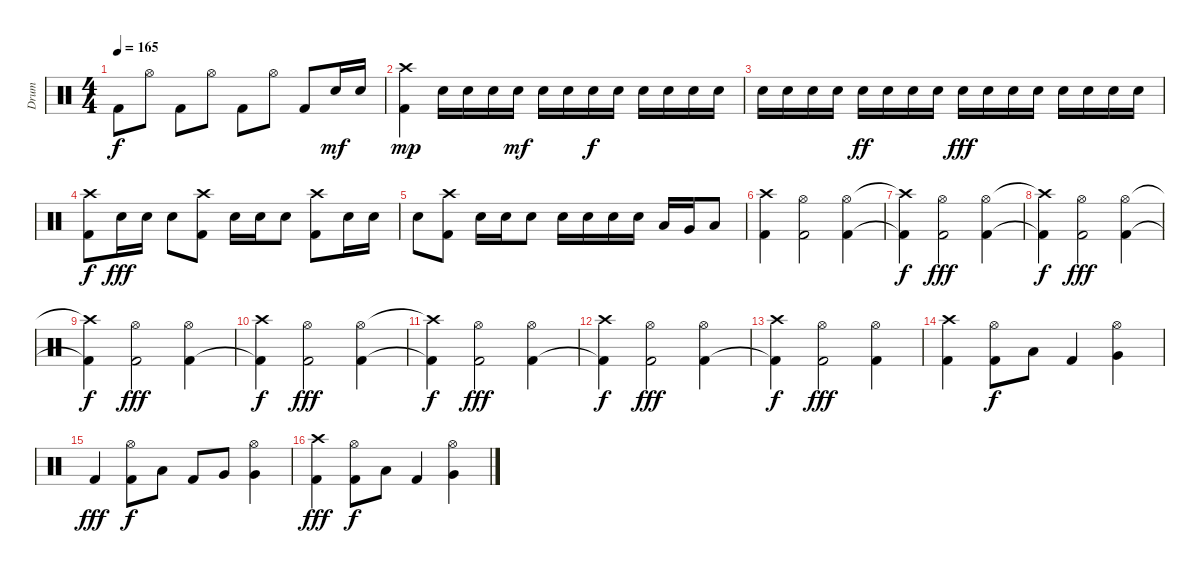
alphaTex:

\track ("Drum" "Drum") {instrument percussion}
\staff {score}
\articulation defaults
\ts (4 4)
\tempo 165
\clef neutral
\ks c "Kick (hit) 2".8{dy f} "Hi-Hat (open)".8 "Kick (hit) 2".8 "Hi-Hat (open)".8 "Kick (hit) 2".8 "Hi-Hat (open)".8 "Kick (hit) 2".8 "Electric Snare (hit)".16{dy mf} "Electric Snare (hit)".16
|
("Crash high (hit)" "Kick (hit) 2").4{dy mp} "Electric Snare (hit)".16 "Electric Snare (hit)".16 "Electric Snare (hit)".16 "Electric Snare (hit)".16{dy mf} "Electric Snare (hit)".16 "Electric Snare (hit)".16 "Electric Snare (hit)".16{dy f} "Electric Snare (hit)".16 "Electric Snare (hit)".16 "Electric Snare (hit)".16 "Electric Snare (hit)".16 "Electric Snare (hit)".16 |
"Electric Snare (hit)".16 "Electric Snare (hit)".16 "Electric Snare (hit)".16 "Electric Snare (hit)".16 "Electric Snare (hit)".16{dy ff} "Electric Snare (hit)".16 "Electric Snare (hit)".16 "Electric Snare (hit)".16 "Electric Snare (hit)".16{dy fff} "Electric Snare (hit)".16 "Electric Snare (hit)".16 "Electric Snare (hit)".16 "Electric Snare (hit)".16 "Electric Snare (hit)".16 "Electric Snare (hit)".16 "Electric Snare (hit)".16 |
("Crash high (hit)" "Kick (hit) 2").8{dy f} "Electric Snare (hit)".16{dy fff} "Electric Snare (hit)".16 "Electric Snare (hit)".8 ("Crash high (hit)" "Kick (hit) 2").8 "Electric Snare (hit)".16 "Electric Snare (hit)".16 "Electric Snare (hit)".8 ("Crash high (hit)" "Kick (hit) 2").8 "Electric Snare (hit)".16 "Electric Snare (hit)".16 |
"Electric Snare (hit)".8 ("Crash high (hit)" "Kick (hit) 2").8 "Electric Snare (hit)".16 "Electric Snare (hit)".16 "Electric Snare (hit)".8 "Electric Snare (hit)".16 "Electric Snare (hit)".16 "Electric Snare (hit)".16 "Electric Snare (hit)".16 "Low Tom (hit)".16 "Very Low Tom (hit)".16 "Low Floor Tom (hit)".8 |
("Crash high (hit)" "Kick (hit) 2").4 ("Hi-Hat (open)" "Kick (hit) 2").2 ("Hi-Hat (open)" "Kick (hit) 2").4 |
("Crash high (hit)"{t} "Kick (hit) 2"{t}).4{dy f} ("Hi-Hat (open)" "Kick (hit) 2").2{dy fff} ("Hi-Hat (open)" "Kick (hit) 2").4 |
("Crash high (hit)"{t} "Kick (hit) 2"{t}).4{dy f} ("Hi-Hat (open)" "Kick (hit) 2").2{dy fff} ("Hi-Hat (open)" "Kick (hit) 2").4 |
("Crash high (hit)"{t} "Kick (hit) 2"{t}).4{dy f} ("Hi-Hat (open)" "Kick (hit) 2").2{dy fff} ("Hi-Hat (open)" "Kick (hit) 2").4 |
("Crash high (hit)" "Kick (hit) 2"{t}).4{dy f} ("Hi-Hat (open)" "Kick (hit) 2").2{dy fff} ("Hi-Hat (open)" "Kick (hit) 2").4 |
("Crash high (hit)"{t} "Kick (hit) 2"{t}).4{dy f} ("Hi-Hat (open)" "Kick (hit) 2").2{dy fff} ("Hi-Hat (open)" "Kick (hit) 2").4 |
("Crash high (hit)" "Kick (hit) 2"{t}).4{dy f} ("Hi-Hat (open)" "Kick (hit) 2").2{dy fff} ("Hi-Hat (open)" "Kick (hit) 2").4 |
("Crash high (hit)" "Kick (hit) 2"{t}).4{dy f} ("Hi-Hat (open)" "Kick (hit) 2").2{dy fff} ("Hi-Hat (open)" "Kick (hit) 2").4 |
("Crash high (hit)" "Kick (hit) 2").4 ("Hi-Hat (open)" "Kick (hit) 2").8{dy f} "Low Tom (hit)".8 "Kick (hit) 2".4 ("Hi-Hat (open)" "Very Low Tom (hit)").4 |
"Kick (hit) 2".4{dy fff} ("Hi-Hat (open)" "Kick (hit) 2").8{dy f} "Low Tom (hit)".8 "Kick (hit) 2".8 "Very Low Tom (hit)".8 ("Hi-Hat (open)" "Very Low Tom (hit)").4 |
("Crash high (hit)" "Kick (hit) 2").4{dy fff} ("Hi-Hat (open)" "Kick (hit) 2").8{dy f} "Low Tom (hit)".8 "Kick (hit) 2".4 ("Hi-Hat (open)" "Very Low Tom (hit)").4
